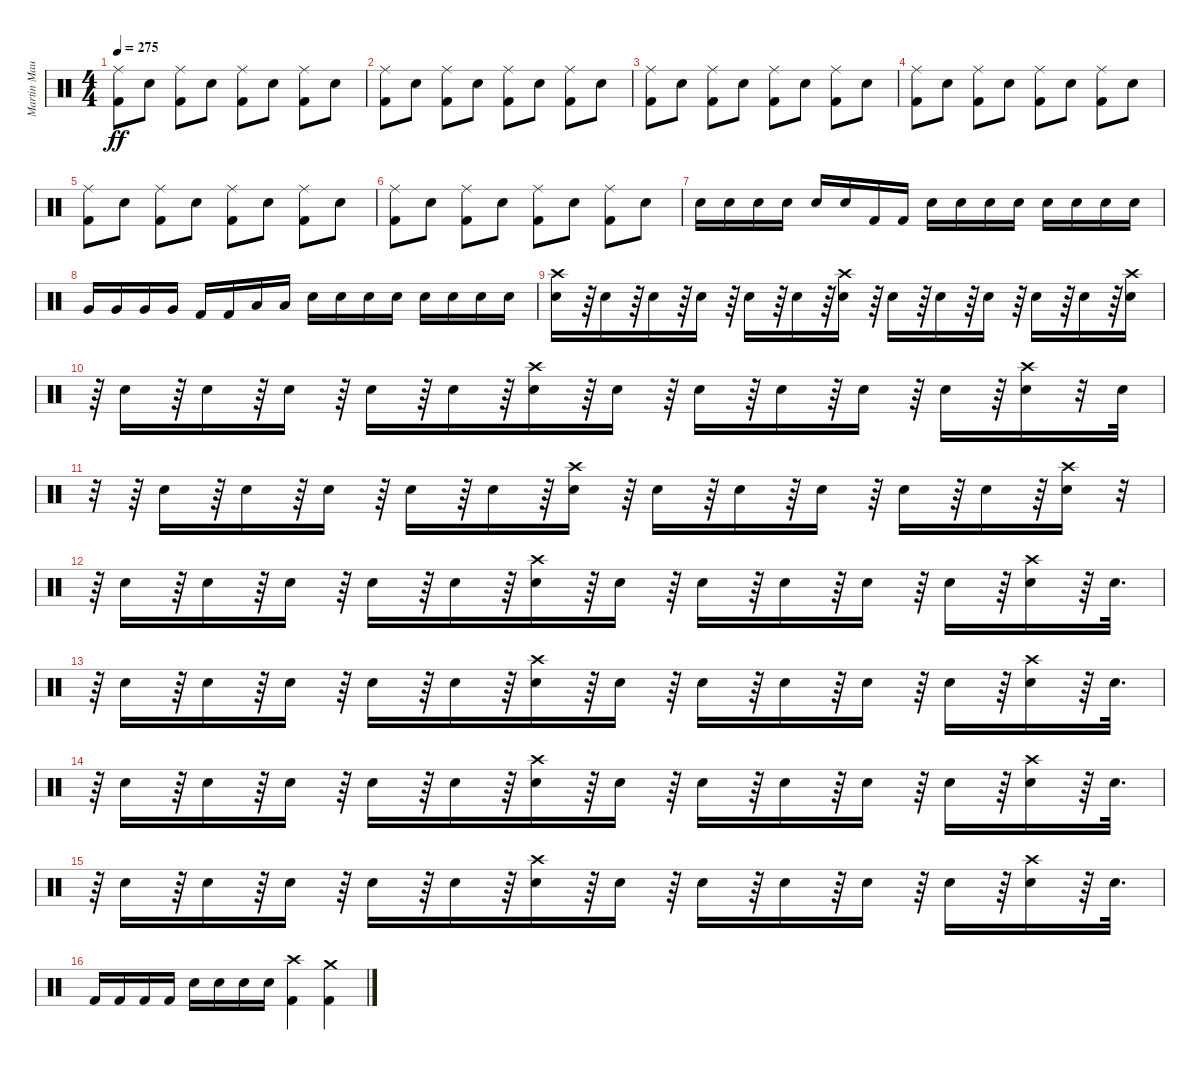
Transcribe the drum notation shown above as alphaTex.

\track ("Martin Maurais " "Martin Mau") {instrument percussion}
\staff {score}
\articulation defaults
\ts (4 4)
\tempo 275
\clef neutral
\ks c
("Ride (middle)" "Kick (hit) 2").8{dy ff} "Snare (hit) 2".8 ("Ride (middle)" "Kick (hit) 2").8 "Snare (hit) 2".8 ("Ride (middle)" "Kick (hit) 2").8 "Snare (hit) 2".8 ("Ride (middle)" "Kick (hit) 2").8 "Snare (hit) 2".8 |
("Ride (middle)" "Kick (hit) 2").8 "Snare (hit) 2".8 ("Ride (middle)" "Kick (hit) 2").8 "Snare (hit) 2".8 ("Ride (middle)" "Kick (hit) 2").8 "Snare (hit) 2".8 ("Ride (middle)" "Kick (hit) 2").8 "Snare (hit) 2".8 |
("Ride (middle)" "Kick (hit) 2").8 "Snare (hit) 2".8 ("Ride (middle)" "Kick (hit) 2").8 "Snare (hit) 2".8 ("Ride (middle)" "Kick (hit) 2").8 "Snare (hit) 2".8 ("Ride (middle)" "Kick (hit) 2").8 "Snare (hit) 2".8 |
("Ride (middle)" "Kick (hit) 2").8 "Snare (hit) 2".8 ("Ride (middle)" "Kick (hit) 2").8 "Snare (hit) 2".8 ("Ride (middle)" "Kick (hit) 2").8 "Snare (hit) 2".8 ("Ride (middle)" "Kick (hit) 2").8 "Snare (hit) 2".8 |
("Ride (middle)" "Kick (hit) 2").8 "Snare (hit) 2".8 ("Ride (middle)" "Kick (hit) 2").8 "Snare (hit) 2".8 ("Ride (middle)" "Kick (hit) 2").8 "Snare (hit) 2".8 ("Ride (middle)" "Kick (hit) 2").8 "Snare (hit) 2".8 |
("Ride (middle)" "Kick (hit) 2").8 "Snare (hit) 2".8 ("Ride (middle)" "Kick (hit) 2").8 "Snare (hit) 2".8 ("Ride (middle)" "Kick (hit) 2").8 "Snare (hit) 2".8 ("Ride (middle)" "Kick (hit) 2").8 "Snare (hit) 2".8 |
"Snare (hit) 2".16 "Snare (hit) 2".16 "Snare (hit) 2".16 "Snare (hit) 2".16 "Snare (hit) 2".16 "Snare (hit) 2".16 "Kick (hit) 2".16 "Kick (hit) 2".16 "Snare (hit) 2".16 "Snare (hit) 2".16 "Snare (hit) 2".16 "Snare (hit) 2".16 "Snare (hit) 2".16 "Snare (hit) 2".16 "Snare (hit) 2".16 "Snare (hit) 2".16 |
"Very Low Tom (hit)".16 "Very Low Tom (hit)".16 "Very Low Tom (hit)".16 "Very Low Tom (hit)".16 "Kick (hit) 2".16 "Kick (hit) 2".16 "Low Floor Tom (hit)".16 "Low Floor Tom (hit)".16 "Snare (hit) 2".16 "Snare (hit) 2".16 "Snare (hit) 2".16 "Snare (hit) 2".16 "Snare (hit) 2".16 "Snare (hit) 2".16 "Snare (hit) 2".16 "Snare (hit) 2".16 |
("Crash high (hit)" "Snare (hit) 2").16 r.64 "Snare (hit) 2".16 r.64 "Snare (hit) 2".16 r.64 "Snare (hit) 2".16 r.64 "Snare (hit) 2".16 r.64 "Snare (hit) 2".16 r.64 ("Crash high (hit)" "Snare (hit) 2").16 r.64 "Snare (hit) 2".16 r.64 "Snare (hit) 2".16 r.64 "Snare (hit) 2".16 r.64 "Snare (hit) 2".16 r.64 "Snare (hit) 2".16 r.64 ("Crash high (hit)" "Snare (hit) 2").16 |
r.64 "Snare (hit) 2".16 r.64 "Snare (hit) 2".16 r.64 "Snare (hit) 2".16 r.64 "Snare (hit) 2".16 r.64 "Snare (hit) 2".16 r.64 ("Crash high (hit)" "Snare (hit) 2").16 r.64 "Snare (hit) 2".16 r.64 "Snare (hit) 2".16 r.64 "Snare (hit) 2".16 r.64 "Snare (hit) 2".16 r.64 "Snare (hit) 2".16 r.64 ("Crash high (hit)" "Snare (hit) 2").16 r.32 "Snare (hit) 2".32 |
r.32 r.64 "Snare (hit) 2".16 r.64 "Snare (hit) 2".16 r.64 "Snare (hit) 2".16 r.64 "Snare (hit) 2".16 r.64 "Snare (hit) 2".16 r.64 ("Crash high (hit)" "Snare (hit) 2").16 r.64 "Snare (hit) 2".16 r.64 "Snare (hit) 2".16 r.64 "Snare (hit) 2".16 r.64 "Snare (hit) 2".16 r.64 "Snare (hit) 2".16 r.64 ("Crash high (hit)" "Snare (hit) 2").16 r.32 |
r.64 "Snare (hit) 2".16 r.64 "Snare (hit) 2".16 r.64 "Snare (hit) 2".16 r.64 "Snare (hit) 2".16 r.64 "Snare (hit) 2".16 r.64 ("Crash high (hit)" "Snare (hit) 2").16 r.64 "Snare (hit) 2".16 r.64 "Snare (hit) 2".16 r.64 "Snare (hit) 2".16 r.64 "Snare (hit) 2".16 r.64 "Snare (hit) 2".16 r.64 ("Crash high (hit)" "Snare (hit) 2").16 r.64 "Snare (hit) 2".32{d} |
r.64 "Snare (hit) 2".16 r.64 "Snare (hit) 2".16 r.64 "Snare (hit) 2".16 r.64 "Snare (hit) 2".16 r.64 "Snare (hit) 2".16 r.64 ("Crash high (hit)" "Snare (hit) 2").16 r.64 "Snare (hit) 2".16 r.64 "Snare (hit) 2".16 r.64 "Snare (hit) 2".16 r.64 "Snare (hit) 2".16 r.64 "Snare (hit) 2".16 r.64 ("Crash high (hit)" "Snare (hit) 2").16 r.64 "Snare (hit) 2".32{d} |
r.64 "Snare (hit) 2".16 r.64 "Snare (hit) 2".16 r.64 "Snare (hit) 2".16 r.64 "Snare (hit) 2".16 r.64 "Snare (hit) 2".16 r.64 ("Crash high (hit)" "Snare (hit) 2").16 r.64 "Snare (hit) 2".16 r.64 "Snare (hit) 2".16 r.64 "Snare (hit) 2".16 r.64 "Snare (hit) 2".16 r.64 "Snare (hit) 2".16 r.64 ("Crash high (hit)" "Snare (hit) 2").16 r.64 "Snare (hit) 2".32{d} |
r.64 "Snare (hit) 2".16 r.64 "Snare (hit) 2".16 r.64 "Snare (hit) 2".16 r.64 "Snare (hit) 2".16 r.64 "Snare (hit) 2".16 r.64 ("Crash high (hit)" "Snare (hit) 2").16 r.64 "Snare (hit) 2".16 r.64 "Snare (hit) 2".16 r.64 "Snare (hit) 2".16 r.64 "Snare (hit) 2".16 r.64 "Snare (hit) 2".16 r.64 ("Crash high (hit)" "Snare (hit) 2").16 r.64 "Snare (hit) 2".32{d} |
"Kick (hit) 2".16 "Kick (hit) 2".16 "Kick (hit) 2".16 "Kick (hit) 2".16 "Snare (hit) 2".16 "Snare (hit) 2".16 "Snare (hit) 2".16 "Snare (hit) 2".16 ("Crash high (hit)" "Kick (hit) 2").4 ("Crash medium (hit)" "Kick (hit) 2").4
